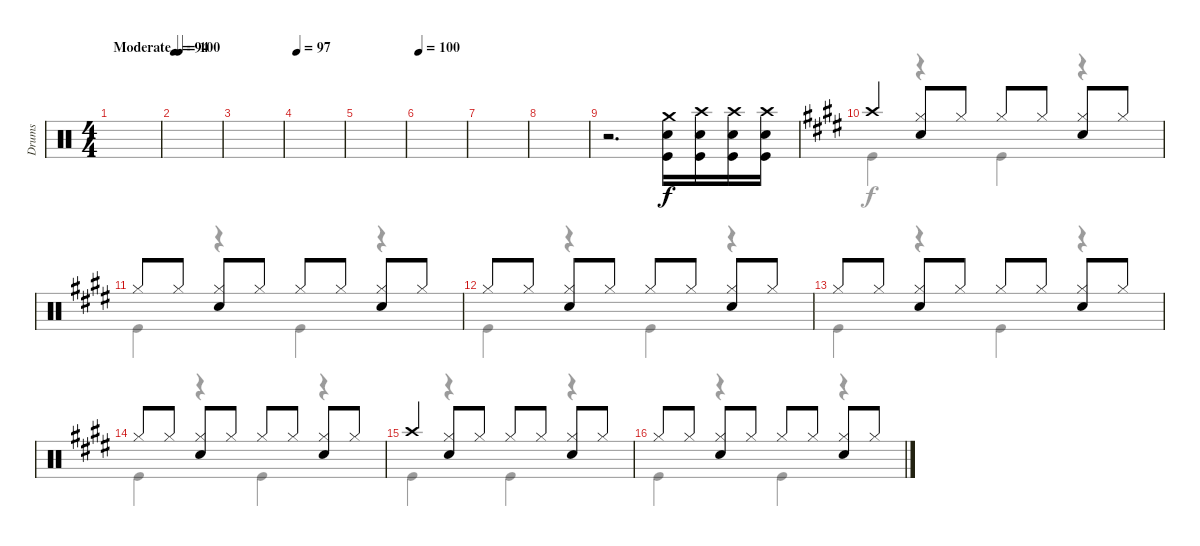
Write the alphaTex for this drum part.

\track ("Drums" "Drums") {instrument percussion}
\staff {score}
\articulation defaults
\voice
\ts (4 4)
\tempo (100 "Moderate")
\clef neutral
\ks c
|
\tempo 94
|
|
\tempo 97
|
|
\tempo 100
|
|
|
r.2{d} ("Crash medium (hit)" "Snare (hit) 2" "Kick (hit)").16 ("Crash high (hit)" "Snare (hit) 2" "Kick (hit)").16 ("Crash high (hit)" "Snare (hit) 2" "Kick (hit)").16 ("Crash high (hit)" "Snare (hit) 2" "Kick (hit)").16 |
\ks e "Crash high (hit)".4
("Hi-Hat (closed)" "Snare (hit) 2").8 "Hi-Hat (closed)".8 "Hi-Hat (closed)".8 "Hi-Hat (closed)".8 ("Hi-Hat (closed)" "Snare (hit) 2").8 "Hi-Hat (closed)".8 |
"Hi-Hat (closed)".8 "Hi-Hat (closed)".8 ("Hi-Hat (closed)" "Snare (hit) 2").8 "Hi-Hat (closed)".8 "Hi-Hat (closed)".8 "Hi-Hat (closed)".8 ("Hi-Hat (closed)" "Snare (hit) 2").8 "Hi-Hat (closed)".8 |
"Hi-Hat (closed)".8 "Hi-Hat (closed)".8 ("Hi-Hat (closed)" "Snare (hit) 2").8 "Hi-Hat (closed)".8 "Hi-Hat (closed)".8 "Hi-Hat (closed)".8 ("Hi-Hat (closed)" "Snare (hit) 2").8 "Hi-Hat (closed)".8 |
"Hi-Hat (closed)".8 "Hi-Hat (closed)".8 ("Hi-Hat (closed)" "Snare (hit) 2").8 "Hi-Hat (closed)".8 "Hi-Hat (closed)".8 "Hi-Hat (closed)".8 ("Hi-Hat (closed)" "Snare (hit) 2").8 "Hi-Hat (closed)".8 |
"Hi-Hat (closed)".8 "Hi-Hat (closed)".8 ("Hi-Hat (closed)" "Snare (hit) 2").8 "Hi-Hat (closed)".8 "Hi-Hat (closed)".8 "Hi-Hat (closed)".8 ("Hi-Hat (closed)" "Snare (hit) 2").8 "Hi-Hat (closed)".8 |
"Crash high (hit)".4 ("Hi-Hat (closed)" "Snare (hit) 2").8 "Hi-Hat (closed)".8 "Hi-Hat (closed)".8 "Hi-Hat (closed)".8 ("Hi-Hat (closed)" "Snare (hit) 2").8 "Hi-Hat (closed)".8 |
"Hi-Hat (closed)".8 "Hi-Hat (closed)".8 ("Hi-Hat (closed)" "Snare (hit) 2").8 "Hi-Hat (closed)".8 "Hi-Hat (closed)".8 "Hi-Hat (closed)".8 ("Hi-Hat (closed)" "Snare (hit) 2").8 "Hi-Hat (closed)".8
\voice
\clef neutral
\ottava regular
\simile none
\ks c
|
|
|
|
|
|
|
|
|
\ks e "Kick (hit)".4
r.4 "Kick (hit)".4 r.4 |
"Kick (hit)".4 r.4 "Kick (hit)".4 r.4 |
"Kick (hit)".4 r.4 "Kick (hit)".4 r.4 |
"Kick (hit)".4 r.4 "Kick (hit)".4 r.4 |
"Kick (hit)".4 r.4 "Kick (hit)".4 r.4 |
"Kick (hit)".4 r.4 "Kick (hit)".4 r.4 |
"Kick (hit)".4 r.4 "Kick (hit)".4 r.4
